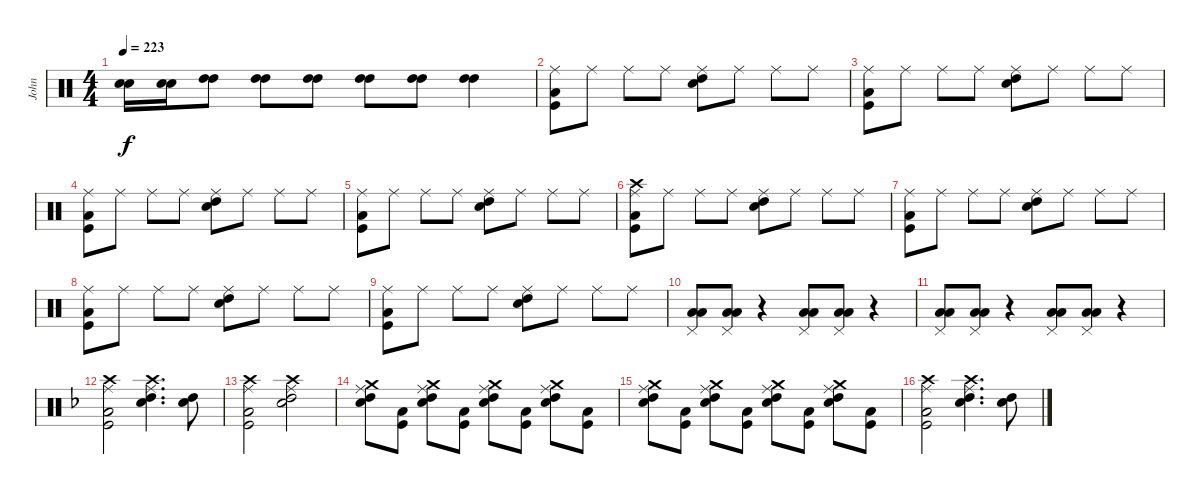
\track ("John" "John") {instrument percussion}
\staff {score}
\articulation defaults
\ts (4 4)
\tempo 223
\clef neutral
\ks c
("Snare (hit) 2" "Snare (hit) 2").16{dy f} ("Snare (hit) 2" "Snare (hit) 2").16 ("High Tom (hit)" "High Tom (hit)").8 ("High Tom (hit)" "High Tom (hit)").8 ("High Tom (hit)" "High Tom (hit)").8 ("High Tom (hit)" "High Tom (hit)").8 ("High Tom (hit)" "High Tom (hit)").8 ("High Tom (hit)" "High Tom (hit)").4 |
("Ride (middle)" "Kick (hit)" "Low Tom (hit)").8 "Ride (middle)".8 "Ride (middle)".8 "Ride (middle)".8 ("Ride (middle)" "Snare (hit) 2" "High Tom (hit)").8 "Ride (middle)".8 "Ride (middle)".8 "Ride (middle)".8 |
("Ride (middle)" "Kick (hit)" "Low Tom (hit)").8 "Ride (middle)".8 "Ride (middle)".8 "Ride (middle)".8 ("Ride (middle)" "Snare (hit) 2" "High Tom (hit)").8 "Ride (middle)".8 "Ride (middle)".8 "Ride (middle)".8 |
("Ride (middle)" "Kick (hit)" "Low Tom (hit)").8 "Ride (middle)".8 "Ride (middle)".8 "Ride (middle)".8 ("Ride (middle)" "Snare (hit) 2" "High Tom (hit)").8 "Ride (middle)".8 "Ride (middle)".8 "Ride (middle)".8 |
("Ride (middle)" "Kick (hit)" "Low Tom (hit)").8 "Ride (middle)".8 "Ride (middle)".8 "Ride (middle)".8 ("Ride (middle)" "Snare (hit) 2" "High Tom (hit)").8 "Ride (middle)".8 "Ride (middle)".8 "Ride (middle)".8 |
("Crash high (hit)" "Ride (middle)" "Kick (hit)" "Low Tom (hit)").8 "Ride (middle)".8 "Ride (middle)".8 "Ride (middle)".8 ("Ride (middle)" "Snare (hit) 2" "High Tom (hit)").8 "Ride (middle)".8 "Ride (middle)".8 "Ride (middle)".8 |
("Ride (middle)" "Kick (hit)" "Low Tom (hit)").8 "Ride (middle)".8 "Ride (middle)".8 "Ride (middle)".8 ("Ride (middle)" "Snare (hit) 2" "High Tom (hit)").8 "Ride (middle)".8 "Ride (middle)".8 "Ride (middle)".8 |
("Ride (middle)" "Kick (hit)" "Low Tom (hit)").8 "Ride (middle)".8 "Ride (middle)".8 "Ride (middle)".8 ("Ride (middle)" "Snare (hit) 2" "High Tom (hit)").8 "Ride (middle)".8 "Ride (middle)".8 "Ride (middle)".8 |
("Ride (middle)" "Kick (hit)" "Low Tom (hit)").8 "Ride (middle)".8 "Ride (middle)".8 "Ride (middle)".8 ("Ride (middle)" "Snare (hit) 2" "High Tom (hit)").8 "Ride (middle)".8 "Ride (middle)".8 "Ride (middle)".8 |
("Pedal Hi-Hat (hit)" "Low Tom (hit)" "Low Tom (hit)").8 ("Pedal Hi-Hat (hit)" "Low Tom (hit)" "Low Tom (hit)").8 r.4 ("Pedal Hi-Hat (hit)" "Low Tom (hit)" "Low Tom (hit)").8 ("Pedal Hi-Hat (hit)" "Low Tom (hit)" "Low Tom (hit)").8 r.4 |
("Pedal Hi-Hat (hit)" "Low Tom (hit)" "Low Tom (hit)").8 ("Pedal Hi-Hat (hit)" "Low Tom (hit)" "Low Tom (hit)").8 r.4 ("Pedal Hi-Hat (hit)" "Low Tom (hit)" "Low Tom (hit)").8 ("Pedal Hi-Hat (hit)" "Low Tom (hit)" "Low Tom (hit)").8 r.4 |
\ks f
("Crash high (hit)" "Ride (middle)" "Kick (hit)" "Low Tom (hit)").2 ("Crash high (hit)" "Ride (middle)" "Snare (hit) 2" "High Tom (hit)").4{d} ("Snare (hit) 2" "High Tom (hit)").8 |
("Crash high (hit)" "Ride (middle)" "Kick (hit)" "Low Tom (hit)").2 ("Crash high (hit)" "Ride (middle)" "Snare (hit) 2" "High Tom (hit)").2 |
("Crash medium (hit)" "Ride (middle)" "Snare (hit) 2" "High Tom (hit)").8 ("Kick (hit)" "Low Tom (hit)").8 ("Crash medium (hit)" "Ride (middle)" "Snare (hit) 2" "High Tom (hit)").8 ("Kick (hit)" "Low Tom (hit)").8 ("Crash medium (hit)" "Ride (middle)" "Snare (hit) 2" "High Tom (hit)").8 ("Kick (hit)" "Low Tom (hit)").8 ("Crash medium (hit)" "Ride (middle)" "Snare (hit) 2" "High Tom (hit)").8 ("Kick (hit)" "Low Tom (hit)").8 |
("Crash medium (hit)" "Ride (middle)" "Snare (hit) 2" "High Tom (hit)").8 ("Kick (hit)" "Low Tom (hit)").8 ("Crash medium (hit)" "Ride (middle)" "Snare (hit) 2" "High Tom (hit)").8 ("Kick (hit)" "Low Tom (hit)").8 ("Crash medium (hit)" "Ride (middle)" "Snare (hit) 2" "High Tom (hit)").8 ("Kick (hit)" "Low Tom (hit)").8 ("Crash medium (hit)" "Ride (middle)" "Snare (hit) 2" "High Tom (hit)").8 ("Kick (hit)" "Low Tom (hit)").8 |
("Crash high (hit)" "Ride (middle)" "Kick (hit)" "Low Tom (hit)").2 ("Crash high (hit)" "Ride (middle)" "Snare (hit) 2" "High Tom (hit)").4{d} ("Snare (hit) 2" "High Tom (hit)").8
